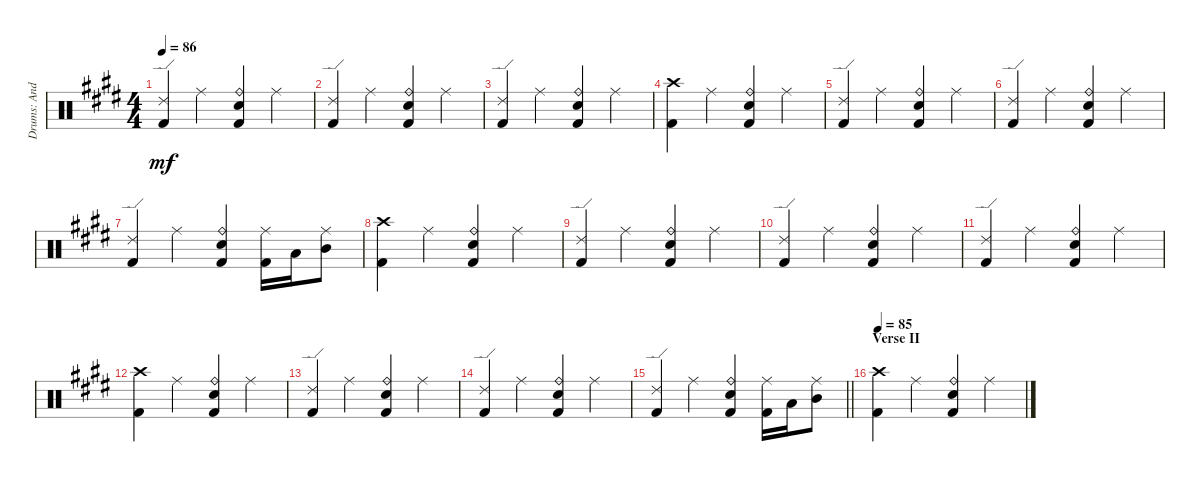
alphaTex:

\track ("Drums: Andy" "Drums: And") {instrument percussion}
\staff {score}
\articulation defaults
\ts (4 4)
\tempo 86
\clef neutral
\ks e
("Ride (edge) 2" "Kick (hit) 2").4{dy mf} "Ride (middle)".4 ("Ride (bell)" "Electric Snare (hit)" "Kick (hit) 2").4 "Ride (middle)".4 |
("Ride (edge) 2" "Kick (hit) 2").4 "Ride (middle)".4 ("Ride (bell)" "Electric Snare (hit)" "Kick (hit) 2").4 "Ride (middle)".4 |
("Ride (edge) 2" "Kick (hit) 2").4 "Ride (middle)".4 ("Ride (bell)" "Electric Snare (hit)" "Kick (hit) 2").4 "Ride (middle)".4 |
("Crash high (hit)" "Kick (hit) 2").4 "Ride (middle)".4 ("Ride (bell)" "Electric Snare (hit)" "Kick (hit) 2").4 "Ride (middle)".4 |
("Ride (edge) 2" "Kick (hit) 2").4 "Ride (middle)".4 ("Ride (bell)" "Electric Snare (hit)" "Kick (hit) 2").4 "Ride (middle)".4 |
("Ride (edge) 2" "Kick (hit) 2").4 "Ride (middle)".4 ("Ride (bell)" "Electric Snare (hit)" "Kick (hit) 2").4 "Ride (middle)".4 |
("Ride (edge) 2" "Kick (hit) 2").4 "Ride (middle)".4 ("Ride (bell)" "Electric Snare (hit)" "Kick (hit) 2").4 ("Ride (middle)" "Kick (hit) 2").16 "Low Tom (hit)".16 ("Ride (middle)" "Mid Tom (hit)").8 |
("Crash high (hit)" "Kick (hit) 2").4 "Ride (middle)".4 ("Ride (bell)" "Electric Snare (hit)" "Kick (hit) 2").4 "Ride (middle)".4 |
("Ride (edge) 2" "Kick (hit) 2").4 "Ride (middle)".4 ("Ride (bell)" "Electric Snare (hit)" "Kick (hit) 2").4 "Ride (middle)".4 |
("Ride (edge) 2" "Kick (hit) 2").4 "Ride (middle)".4 ("Ride (bell)" "Electric Snare (hit)" "Kick (hit) 2").4 "Ride (middle)".4 |
("Ride (edge) 2" "Kick (hit) 2").4 "Ride (middle)".4 ("Ride (bell)" "Electric Snare (hit)" "Kick (hit) 2").4 "Ride (middle)".4 |
("Crash high (hit)" "Kick (hit) 2").4 "Ride (middle)".4 ("Ride (bell)" "Electric Snare (hit)" "Kick (hit) 2").4 "Ride (middle)".4 |
("Ride (edge) 2" "Kick (hit) 2").4 "Ride (middle)".4 ("Ride (bell)" "Electric Snare (hit)" "Kick (hit) 2").4 "Ride (middle)".4 |
("Ride (edge) 2" "Kick (hit) 2").4 "Ride (middle)".4 ("Ride (bell)" "Electric Snare (hit)" "Kick (hit) 2").4 "Ride (middle)".4 |
\barLineRight lightlight
("Ride (edge) 2" "Kick (hit) 2").4 "Ride (middle)".4 ("Ride (bell)" "Electric Snare (hit)" "Kick (hit) 2").4 ("Ride (middle)" "Kick (hit) 2").16 "Low Tom (hit)".16 ("Ride (middle)" "Mid Tom (hit)").8 |
\section ("" "Verse II")
\tempo 85
("Crash high (hit)" "Kick (hit) 2").4 "Ride (middle)".4 ("Ride (bell)" "Electric Snare (hit)" "Kick (hit) 2").4 "Ride (middle)".4
